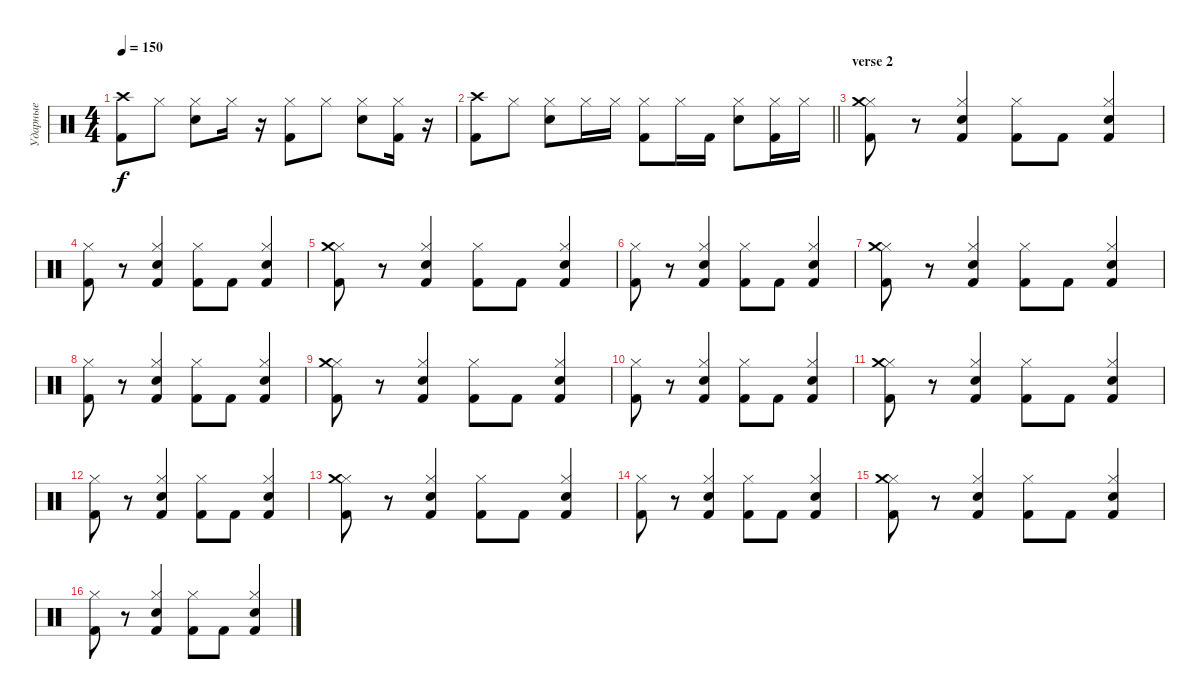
\track ("Ударные" "Ударные") {instrument percussion}
\staff {score}
\articulation defaults
\ts (4 4)
\tempo 150
\clef neutral
\ks c
("Crash high (hit)" "Kick (hit) 2").8{dy f} "Hi-Hat (closed)".8 ("Hi-Hat (closed)" "Electric Snare (hit)").8 "Hi-Hat (closed)".16 r.16 ("Hi-Hat (closed)" "Kick (hit) 2").8 "Hi-Hat (closed)".8 ("Hi-Hat (closed)" "Electric Snare (hit)").8 ("Hi-Hat (closed)" "Kick (hit) 2").16 r.16 |
\barLineRight lightlight
("Crash high (hit)" "Kick (hit) 2").8 "Hi-Hat (closed)".8 ("Hi-Hat (closed)" "Electric Snare (hit)").8 "Hi-Hat (closed)".16 "Hi-Hat (closed)".16 ("Hi-Hat (closed)" "Kick (hit) 2").8 "Hi-Hat (closed)".16 "Kick (hit) 2".16 ("Hi-Hat (closed)" "Electric Snare (hit)").8 ("Hi-Hat (closed)" "Kick (hit) 2").16 "Hi-Hat (closed)".16 |
\section ("" "verse 2")
("Kick (hit) 2" "Hi-Hat (closed)" "Crash medium (hit)").8 r.8 ("Kick (hit) 2" "Snare (hit) 2" "Hi-Hat (closed)").4 ("Kick (hit) 2" "Hi-Hat (closed)").8 "Kick (hit) 2".8 ("Kick (hit) 2" "Snare (hit) 2" "Hi-Hat (closed)").4 |
("Kick (hit) 2" "Hi-Hat (closed)").8 r.8 ("Kick (hit) 2" "Snare (hit) 2" "Hi-Hat (closed)").4 ("Kick (hit) 2" "Hi-Hat (closed)").8 "Kick (hit) 2".8 ("Kick (hit) 2" "Snare (hit) 2" "Hi-Hat (closed)").4 |
("Kick (hit) 2" "Hi-Hat (closed)" "Crash medium (hit)").8 r.8 ("Kick (hit) 2" "Snare (hit) 2" "Hi-Hat (closed)").4 ("Kick (hit) 2" "Hi-Hat (closed)").8 "Kick (hit) 2".8 ("Kick (hit) 2" "Snare (hit) 2" "Hi-Hat (closed)").4 |
("Kick (hit) 2" "Hi-Hat (closed)").8 r.8 ("Kick (hit) 2" "Snare (hit) 2" "Hi-Hat (closed)").4 ("Kick (hit) 2" "Hi-Hat (closed)").8 "Kick (hit) 2".8 ("Kick (hit) 2" "Snare (hit) 2" "Hi-Hat (closed)").4 |
("Kick (hit) 2" "Hi-Hat (closed)" "Crash medium (hit)").8 r.8 ("Kick (hit) 2" "Snare (hit) 2" "Hi-Hat (closed)").4 ("Kick (hit) 2" "Hi-Hat (closed)").8 "Kick (hit) 2".8 ("Kick (hit) 2" "Snare (hit) 2" "Hi-Hat (closed)").4 |
("Kick (hit) 2" "Hi-Hat (closed)").8 r.8 ("Kick (hit) 2" "Snare (hit) 2" "Hi-Hat (closed)").4 ("Kick (hit) 2" "Hi-Hat (closed)").8 "Kick (hit) 2".8 ("Kick (hit) 2" "Snare (hit) 2" "Hi-Hat (closed)").4 |
("Kick (hit) 2" "Hi-Hat (closed)" "Crash medium (hit)").8 r.8 ("Kick (hit) 2" "Snare (hit) 2" "Hi-Hat (closed)").4 ("Kick (hit) 2" "Hi-Hat (closed)").8 "Kick (hit) 2".8 ("Kick (hit) 2" "Snare (hit) 2" "Hi-Hat (closed)").4 |
("Kick (hit) 2" "Hi-Hat (closed)").8 r.8 ("Kick (hit) 2" "Snare (hit) 2" "Hi-Hat (closed)").4 ("Kick (hit) 2" "Hi-Hat (closed)").8 "Kick (hit) 2".8 ("Kick (hit) 2" "Snare (hit) 2" "Hi-Hat (closed)").4 |
("Kick (hit) 2" "Hi-Hat (closed)" "Crash medium (hit)").8 r.8 ("Kick (hit) 2" "Snare (hit) 2" "Hi-Hat (closed)").4 ("Kick (hit) 2" "Hi-Hat (closed)").8 "Kick (hit) 2".8 ("Kick (hit) 2" "Snare (hit) 2" "Hi-Hat (closed)").4 |
("Kick (hit) 2" "Hi-Hat (closed)").8 r.8 ("Kick (hit) 2" "Snare (hit) 2" "Hi-Hat (closed)").4 ("Kick (hit) 2" "Hi-Hat (closed)").8 "Kick (hit) 2".8 ("Kick (hit) 2" "Snare (hit) 2" "Hi-Hat (closed)").4 |
("Kick (hit) 2" "Hi-Hat (closed)" "Crash medium (hit)").8 r.8 ("Kick (hit) 2" "Snare (hit) 2" "Hi-Hat (closed)").4 ("Kick (hit) 2" "Hi-Hat (closed)").8 "Kick (hit) 2".8 ("Kick (hit) 2" "Snare (hit) 2" "Hi-Hat (closed)").4 |
("Kick (hit) 2" "Hi-Hat (closed)").8 r.8 ("Kick (hit) 2" "Snare (hit) 2" "Hi-Hat (closed)").4 ("Kick (hit) 2" "Hi-Hat (closed)").8 "Kick (hit) 2".8 ("Kick (hit) 2" "Snare (hit) 2" "Hi-Hat (closed)").4 |
("Kick (hit) 2" "Hi-Hat (closed)" "Crash medium (hit)").8 r.8 ("Kick (hit) 2" "Snare (hit) 2" "Hi-Hat (closed)").4 ("Kick (hit) 2" "Hi-Hat (closed)").8 "Kick (hit) 2".8 ("Kick (hit) 2" "Snare (hit) 2" "Hi-Hat (closed)").4 |
("Kick (hit) 2" "Hi-Hat (closed)").8 r.8 ("Kick (hit) 2" "Snare (hit) 2" "Hi-Hat (closed)").4 ("Kick (hit) 2" "Hi-Hat (closed)").8 "Kick (hit) 2".8 ("Kick (hit) 2" "Snare (hit) 2" "Hi-Hat (closed)").4
